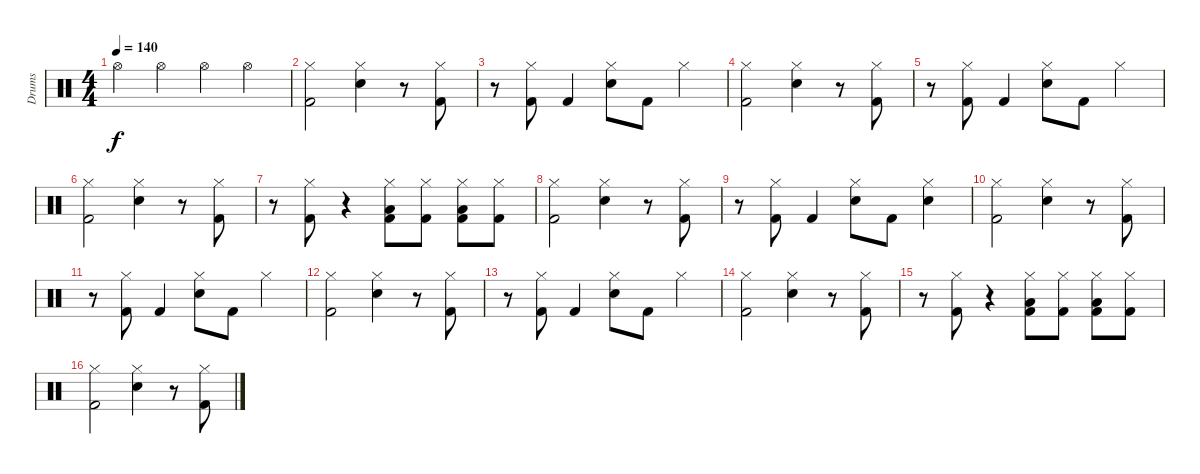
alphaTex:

\track ("Drums" "Drums") {instrument percussion}
\staff {score}
\articulation defaults
\ts (4 4)
\tempo 140
\clef neutral
\ks c "Hi-Hat (open)".4{dy f} "Hi-Hat (open)".4 "Hi-Hat (open)".4 "Hi-Hat (open)".4
|
("Hi-Hat (closed)" "Kick (hit) 2").2 ("Hi-Hat (closed)" "Snare (hit) 2").4 r.8 ("Hi-Hat (closed)" "Kick (hit) 2").8 |
r.8 ("Hi-Hat (closed)" "Kick (hit) 2").8 "Kick (hit) 2".4 ("Hi-Hat (closed)" "Snare (hit) 2").8 "Kick (hit) 2".8 "Hi-Hat (closed)".4 |
("Hi-Hat (closed)" "Kick (hit) 2").2 ("Hi-Hat (closed)" "Snare (hit) 2").4 r.8 ("Hi-Hat (closed)" "Kick (hit) 2").8 |
r.8 ("Hi-Hat (closed)" "Kick (hit) 2").8 "Kick (hit) 2".4 ("Hi-Hat (closed)" "Snare (hit) 2").8 "Kick (hit) 2".8 "Hi-Hat (closed)".4 |
("Hi-Hat (closed)" "Kick (hit) 2").2 ("Hi-Hat (closed)" "Snare (hit) 2").4 r.8 ("Hi-Hat (closed)" "Kick (hit) 2").8 |
r.8 ("Hi-Hat (closed)" "Kick (hit) 2").8 r.4 ("Hi-Hat (closed)" "Low Floor Tom (hit)" "Kick (hit) 2").8 ("Hi-Hat (closed)" "Kick (hit) 2").8 ("Hi-Hat (closed)" "Low Floor Tom (hit)" "Kick (hit) 2").8 ("Hi-Hat (closed)" "Kick (hit) 2").8 |
("Hi-Hat (closed)" "Kick (hit) 2").2 ("Hi-Hat (closed)" "Snare (hit) 2").4 r.8 ("Hi-Hat (closed)" "Kick (hit) 2").8 |
r.8 ("Hi-Hat (closed)" "Kick (hit) 2").8 "Kick (hit) 2".4 ("Hi-Hat (closed)" "Snare (hit) 2").8 "Kick (hit) 2".8 ("Hi-Hat (closed)" "Snare (hit) 2").4 |
("Hi-Hat (closed)" "Kick (hit) 2").2 ("Hi-Hat (closed)" "Snare (hit) 2").4 r.8 ("Hi-Hat (closed)" "Kick (hit) 2").8 |
r.8 ("Hi-Hat (closed)" "Kick (hit) 2").8 "Kick (hit) 2".4 ("Hi-Hat (closed)" "Snare (hit) 2").8 "Kick (hit) 2".8 "Hi-Hat (closed)".4 |
("Hi-Hat (closed)" "Kick (hit) 2").2 ("Hi-Hat (closed)" "Snare (hit) 2").4 r.8 ("Hi-Hat (closed)" "Kick (hit) 2").8 |
r.8 ("Hi-Hat (closed)" "Kick (hit) 2").8 "Kick (hit) 2".4 ("Hi-Hat (closed)" "Snare (hit) 2").8 "Kick (hit) 2".8 "Hi-Hat (closed)".4 |
("Hi-Hat (closed)" "Kick (hit) 2").2 ("Hi-Hat (closed)" "Snare (hit) 2").4 r.8 ("Hi-Hat (closed)" "Kick (hit) 2").8 |
r.8 ("Hi-Hat (closed)" "Kick (hit) 2").8 r.4 ("Hi-Hat (closed)" "Low Floor Tom (hit)" "Kick (hit) 2").8 ("Hi-Hat (closed)" "Kick (hit) 2").8 ("Hi-Hat (closed)" "Low Floor Tom (hit)" "Kick (hit) 2").8 ("Hi-Hat (closed)" "Kick (hit) 2").8 |
("Hi-Hat (closed)" "Kick (hit) 2").2 ("Hi-Hat (closed)" "Snare (hit) 2").4 r.8 ("Hi-Hat (closed)" "Kick (hit) 2").8
